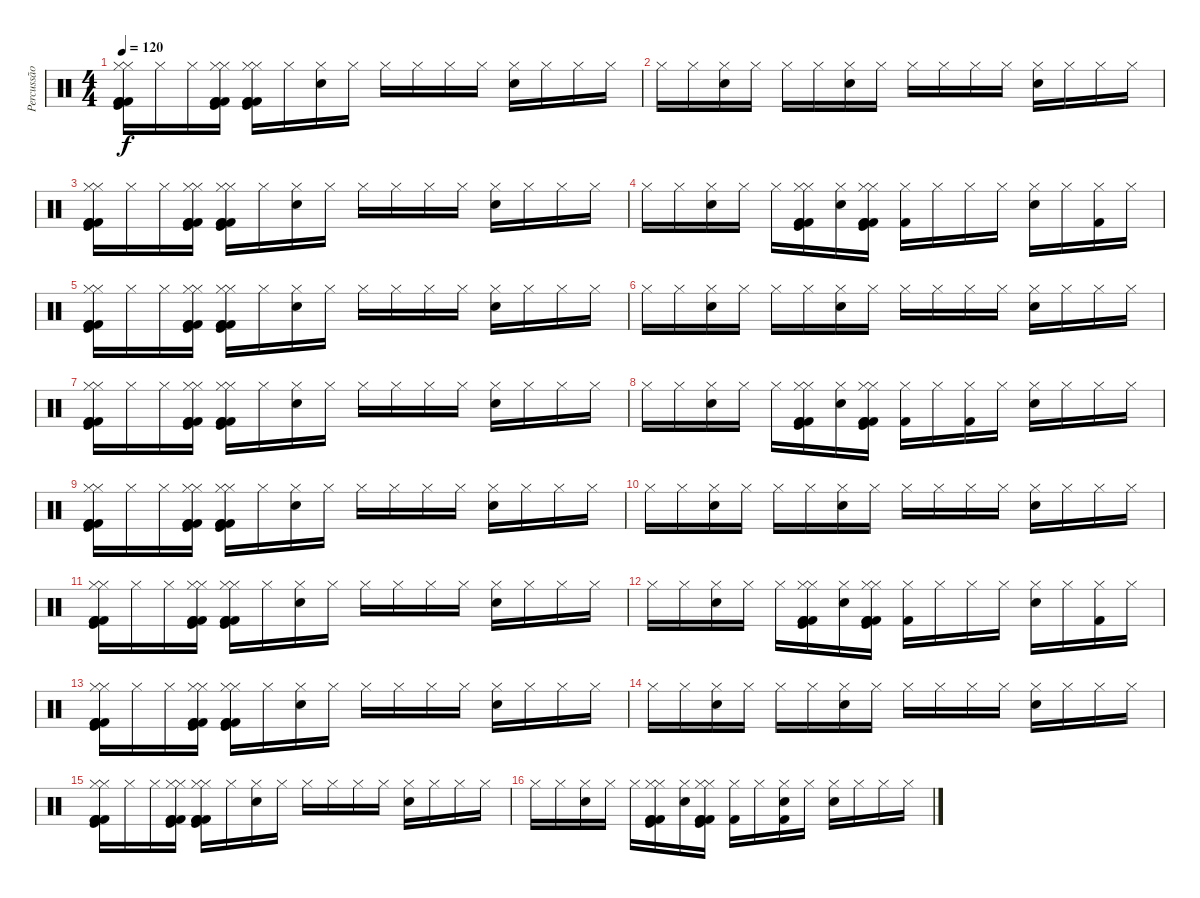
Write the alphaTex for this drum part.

\track ("Percussão" "Percussão") {instrument percussion}
\staff {score}
\articulation defaults
\ts (4 4)
\tempo 120
\clef neutral
\ks c
("Hi-Hat (closed)" "Kick (hit)" "Kick (hit) 2" "Kick (hit) 2" "Hi-Hat (closed)" "Kick (hit) 2").16{dy f} "Hi-Hat (closed)".16 "Hi-Hat (closed)".16 ("Hi-Hat (closed)" "Kick (hit)" "Kick (hit) 2" "Kick (hit) 2" "Hi-Hat (closed)" "Kick (hit) 2").16 ("Hi-Hat (closed)" "Kick (hit)" "Kick (hit) 2" "Kick (hit) 2" "Hi-Hat (closed)" "Kick (hit) 2").16 "Hi-Hat (closed)".16 ("Electric Snare (hit)" "Hi-Hat (closed)").16 "Hi-Hat (closed)".16 "Hi-Hat (closed)".16 "Hi-Hat (closed)".16 "Hi-Hat (closed)".16 "Hi-Hat (closed)".16 ("Electric Snare (hit)" "Hi-Hat (closed)").16 "Hi-Hat (closed)".16 "Hi-Hat (closed)".16 "Hi-Hat (closed)".16 |
"Hi-Hat (closed)".16 "Hi-Hat (closed)".16 ("Electric Snare (hit)" "Hi-Hat (closed)").16 "Hi-Hat (closed)".16 "Hi-Hat (closed)".16 "Hi-Hat (closed)".16 ("Electric Snare (hit)" "Hi-Hat (closed)").16 "Hi-Hat (closed)".16 "Hi-Hat (closed)".16 "Hi-Hat (closed)".16 "Hi-Hat (closed)".16 "Hi-Hat (closed)".16 ("Electric Snare (hit)" "Hi-Hat (closed)").16 "Hi-Hat (closed)".16 "Hi-Hat (closed)".16 "Hi-Hat (closed)".16 |
("Hi-Hat (closed)" "Kick (hit)" "Kick (hit) 2" "Kick (hit) 2" "Hi-Hat (closed)" "Kick (hit) 2").16 "Hi-Hat (closed)".16 "Hi-Hat (closed)".16 ("Hi-Hat (closed)" "Kick (hit)" "Kick (hit) 2" "Kick (hit) 2" "Hi-Hat (closed)" "Kick (hit) 2").16 ("Hi-Hat (closed)" "Kick (hit)" "Kick (hit) 2" "Kick (hit) 2" "Hi-Hat (closed)" "Kick (hit) 2").16 "Hi-Hat (closed)".16 ("Electric Snare (hit)" "Hi-Hat (closed)").16 "Hi-Hat (closed)".16 "Hi-Hat (closed)".16 "Hi-Hat (closed)".16 "Hi-Hat (closed)".16 "Hi-Hat (closed)".16 ("Electric Snare (hit)" "Hi-Hat (closed)").16 "Hi-Hat (closed)".16 "Hi-Hat (closed)".16 "Hi-Hat (closed)".16 |
"Hi-Hat (closed)".16 "Hi-Hat (closed)".16 ("Electric Snare (hit)" "Hi-Hat (closed)").16 "Hi-Hat (closed)".16 "Hi-Hat (closed)".16 ("Hi-Hat (closed)" "Kick (hit)" "Kick (hit) 2" "Kick (hit) 2" "Hi-Hat (closed)" "Kick (hit) 2").16 ("Electric Snare (hit)" "Hi-Hat (closed)").16 ("Hi-Hat (closed)" "Kick (hit)" "Kick (hit) 2" "Kick (hit) 2" "Hi-Hat (closed)" "Kick (hit) 2").16 ("Hi-Hat (closed)" "Kick (hit) 2").16 "Hi-Hat (closed)".16 "Hi-Hat (closed)".16 "Hi-Hat (closed)".16 ("Electric Snare (hit)" "Hi-Hat (closed)").16 "Hi-Hat (closed)".16 ("Hi-Hat (closed)" "Kick (hit) 2").16 "Hi-Hat (closed)".16 |
("Hi-Hat (closed)" "Kick (hit)" "Kick (hit) 2" "Kick (hit) 2" "Hi-Hat (closed)" "Kick (hit) 2").16 "Hi-Hat (closed)".16 "Hi-Hat (closed)".16 ("Hi-Hat (closed)" "Kick (hit)" "Kick (hit) 2" "Kick (hit) 2" "Hi-Hat (closed)" "Kick (hit) 2").16 ("Hi-Hat (closed)" "Kick (hit)" "Kick (hit) 2" "Kick (hit) 2" "Hi-Hat (closed)" "Kick (hit) 2").16 "Hi-Hat (closed)".16 ("Electric Snare (hit)" "Hi-Hat (closed)").16 "Hi-Hat (closed)".16 "Hi-Hat (closed)".16 "Hi-Hat (closed)".16 "Hi-Hat (closed)".16 "Hi-Hat (closed)".16 ("Electric Snare (hit)" "Hi-Hat (closed)").16 "Hi-Hat (closed)".16 "Hi-Hat (closed)".16 "Hi-Hat (closed)".16 |
"Hi-Hat (closed)".16 "Hi-Hat (closed)".16 ("Electric Snare (hit)" "Hi-Hat (closed)").16 "Hi-Hat (closed)".16 "Hi-Hat (closed)".16 "Hi-Hat (closed)".16 ("Electric Snare (hit)" "Hi-Hat (closed)").16 "Hi-Hat (closed)".16 "Hi-Hat (closed)".16 "Hi-Hat (closed)".16 "Hi-Hat (closed)".16 "Hi-Hat (closed)".16 ("Electric Snare (hit)" "Hi-Hat (closed)").16 "Hi-Hat (closed)".16 "Hi-Hat (closed)".16 "Hi-Hat (closed)".16 |
("Hi-Hat (closed)" "Kick (hit)" "Kick (hit) 2" "Kick (hit) 2" "Hi-Hat (closed)" "Kick (hit) 2").16 "Hi-Hat (closed)".16 "Hi-Hat (closed)".16 ("Hi-Hat (closed)" "Kick (hit)" "Kick (hit) 2" "Kick (hit) 2" "Hi-Hat (closed)" "Kick (hit) 2").16 ("Hi-Hat (closed)" "Kick (hit)" "Kick (hit) 2" "Kick (hit) 2" "Hi-Hat (closed)" "Kick (hit) 2").16 "Hi-Hat (closed)".16 ("Electric Snare (hit)" "Hi-Hat (closed)").16 "Hi-Hat (closed)".16 "Hi-Hat (closed)".16 "Hi-Hat (closed)".16 "Hi-Hat (closed)".16 "Hi-Hat (closed)".16 ("Electric Snare (hit)" "Hi-Hat (closed)").16 "Hi-Hat (closed)".16 "Hi-Hat (closed)".16 "Hi-Hat (closed)".16 |
"Hi-Hat (closed)".16 "Hi-Hat (closed)".16 ("Electric Snare (hit)" "Hi-Hat (closed)").16 "Hi-Hat (closed)".16 "Hi-Hat (closed)".16 ("Hi-Hat (closed)" "Kick (hit)" "Kick (hit) 2" "Kick (hit) 2" "Hi-Hat (closed)" "Kick (hit) 2").16 ("Electric Snare (hit)" "Hi-Hat (closed)").16 ("Hi-Hat (closed)" "Kick (hit)" "Kick (hit) 2" "Kick (hit) 2" "Hi-Hat (closed)" "Kick (hit) 2").16 ("Hi-Hat (closed)" "Kick (hit) 2").16 "Hi-Hat (closed)".16 ("Hi-Hat (closed)" "Kick (hit) 2").16 "Hi-Hat (closed)".16 ("Electric Snare (hit)" "Hi-Hat (closed)").16 "Hi-Hat (closed)".16 "Hi-Hat (closed)".16 "Hi-Hat (closed)".16 |
("Hi-Hat (closed)" "Kick (hit)" "Kick (hit) 2" "Kick (hit) 2" "Hi-Hat (closed)" "Kick (hit) 2").16 "Hi-Hat (closed)".16 "Hi-Hat (closed)".16 ("Hi-Hat (closed)" "Kick (hit)" "Kick (hit) 2" "Kick (hit) 2" "Hi-Hat (closed)" "Kick (hit) 2").16 ("Hi-Hat (closed)" "Kick (hit)" "Kick (hit) 2" "Kick (hit) 2" "Hi-Hat (closed)" "Kick (hit) 2").16 "Hi-Hat (closed)".16 ("Electric Snare (hit)" "Hi-Hat (closed)").16 "Hi-Hat (closed)".16 "Hi-Hat (closed)".16 "Hi-Hat (closed)".16 "Hi-Hat (closed)".16 "Hi-Hat (closed)".16 ("Electric Snare (hit)" "Hi-Hat (closed)").16 "Hi-Hat (closed)".16 "Hi-Hat (closed)".16 "Hi-Hat (closed)".16 |
"Hi-Hat (closed)".16 "Hi-Hat (closed)".16 ("Electric Snare (hit)" "Hi-Hat (closed)").16 "Hi-Hat (closed)".16 "Hi-Hat (closed)".16 "Hi-Hat (closed)".16 ("Electric Snare (hit)" "Hi-Hat (closed)").16 "Hi-Hat (closed)".16 "Hi-Hat (closed)".16 "Hi-Hat (closed)".16 "Hi-Hat (closed)".16 "Hi-Hat (closed)".16 ("Electric Snare (hit)" "Hi-Hat (closed)").16 "Hi-Hat (closed)".16 "Hi-Hat (closed)".16 "Hi-Hat (closed)".16 |
("Hi-Hat (closed)" "Kick (hit)" "Kick (hit) 2" "Kick (hit) 2" "Hi-Hat (closed)" "Kick (hit) 2").16 "Hi-Hat (closed)".16 "Hi-Hat (closed)".16 ("Hi-Hat (closed)" "Kick (hit)" "Kick (hit) 2" "Kick (hit) 2" "Hi-Hat (closed)" "Kick (hit) 2").16 ("Hi-Hat (closed)" "Kick (hit)" "Kick (hit) 2" "Kick (hit) 2" "Hi-Hat (closed)" "Kick (hit) 2").16 "Hi-Hat (closed)".16 ("Electric Snare (hit)" "Hi-Hat (closed)").16 "Hi-Hat (closed)".16 "Hi-Hat (closed)".16 "Hi-Hat (closed)".16 "Hi-Hat (closed)".16 "Hi-Hat (closed)".16 ("Electric Snare (hit)" "Hi-Hat (closed)").16 "Hi-Hat (closed)".16 "Hi-Hat (closed)".16 "Hi-Hat (closed)".16 |
"Hi-Hat (closed)".16 "Hi-Hat (closed)".16 ("Electric Snare (hit)" "Hi-Hat (closed)").16 "Hi-Hat (closed)".16 "Hi-Hat (closed)".16 ("Hi-Hat (closed)" "Kick (hit)" "Kick (hit) 2" "Kick (hit) 2" "Hi-Hat (closed)" "Kick (hit) 2").16 ("Electric Snare (hit)" "Hi-Hat (closed)").16 ("Hi-Hat (closed)" "Kick (hit)" "Kick (hit) 2" "Kick (hit) 2" "Hi-Hat (closed)" "Kick (hit) 2").16 ("Hi-Hat (closed)" "Kick (hit) 2").16 "Hi-Hat (closed)".16 "Hi-Hat (closed)".16 "Hi-Hat (closed)".16 ("Electric Snare (hit)" "Hi-Hat (closed)").16 "Hi-Hat (closed)".16 ("Hi-Hat (closed)" "Kick (hit) 2").16 "Hi-Hat (closed)".16 |
("Hi-Hat (closed)" "Kick (hit)" "Kick (hit) 2" "Kick (hit) 2" "Hi-Hat (closed)" "Kick (hit) 2").16 "Hi-Hat (closed)".16 "Hi-Hat (closed)".16 ("Hi-Hat (closed)" "Kick (hit)" "Kick (hit) 2" "Kick (hit) 2" "Hi-Hat (closed)" "Kick (hit) 2").16 ("Hi-Hat (closed)" "Kick (hit)" "Kick (hit) 2" "Kick (hit) 2" "Hi-Hat (closed)" "Kick (hit) 2").16 "Hi-Hat (closed)".16 ("Electric Snare (hit)" "Hi-Hat (closed)").16 "Hi-Hat (closed)".16 "Hi-Hat (closed)".16 "Hi-Hat (closed)".16 "Hi-Hat (closed)".16 "Hi-Hat (closed)".16 ("Electric Snare (hit)" "Hi-Hat (closed)").16 "Hi-Hat (closed)".16 "Hi-Hat (closed)".16 "Hi-Hat (closed)".16 |
"Hi-Hat (closed)".16 "Hi-Hat (closed)".16 ("Electric Snare (hit)" "Hi-Hat (closed)").16 "Hi-Hat (closed)".16 "Hi-Hat (closed)".16 "Hi-Hat (closed)".16 ("Electric Snare (hit)" "Hi-Hat (closed)").16 "Hi-Hat (closed)".16 "Hi-Hat (closed)".16 "Hi-Hat (closed)".16 "Hi-Hat (closed)".16 "Hi-Hat (closed)".16 ("Electric Snare (hit)" "Hi-Hat (closed)").16 "Hi-Hat (closed)".16 "Hi-Hat (closed)".16 "Hi-Hat (closed)".16 |
("Hi-Hat (closed)" "Kick (hit)" "Kick (hit) 2" "Kick (hit) 2" "Hi-Hat (closed)" "Kick (hit) 2").16 "Hi-Hat (closed)".16 "Hi-Hat (closed)".16 ("Hi-Hat (closed)" "Kick (hit)" "Kick (hit) 2" "Kick (hit) 2" "Hi-Hat (closed)" "Kick (hit) 2").16 ("Hi-Hat (closed)" "Kick (hit)" "Kick (hit) 2" "Kick (hit) 2" "Hi-Hat (closed)" "Kick (hit) 2").16 "Hi-Hat (closed)".16 ("Electric Snare (hit)" "Hi-Hat (closed)").16 "Hi-Hat (closed)".16 "Hi-Hat (closed)".16 "Hi-Hat (closed)".16 "Hi-Hat (closed)".16 "Hi-Hat (closed)".16 ("Electric Snare (hit)" "Hi-Hat (closed)").16 "Hi-Hat (closed)".16 "Hi-Hat (closed)".16 "Hi-Hat (closed)".16 |
"Hi-Hat (closed)".16 "Hi-Hat (closed)".16 ("Electric Snare (hit)" "Hi-Hat (closed)").16 "Hi-Hat (closed)".16 "Hi-Hat (closed)".16 ("Hi-Hat (closed)" "Kick (hit)" "Kick (hit) 2" "Kick (hit) 2" "Hi-Hat (closed)" "Kick (hit) 2").16 ("Electric Snare (hit)" "Hi-Hat (closed)").16 ("Hi-Hat (closed)" "Kick (hit)" "Kick (hit) 2" "Kick (hit) 2" "Hi-Hat (closed)" "Kick (hit) 2").16 ("Hi-Hat (closed)" "Kick (hit) 2").16 "Hi-Hat (closed)".16 ("Electric Snare (hit)" "Hi-Hat (closed)" "Kick (hit) 2").16 "Hi-Hat (closed)".16 ("Electric Snare (hit)" "Hi-Hat (closed)").16 "Hi-Hat (closed)".16 "Hi-Hat (closed)".16 "Hi-Hat (closed)".16
